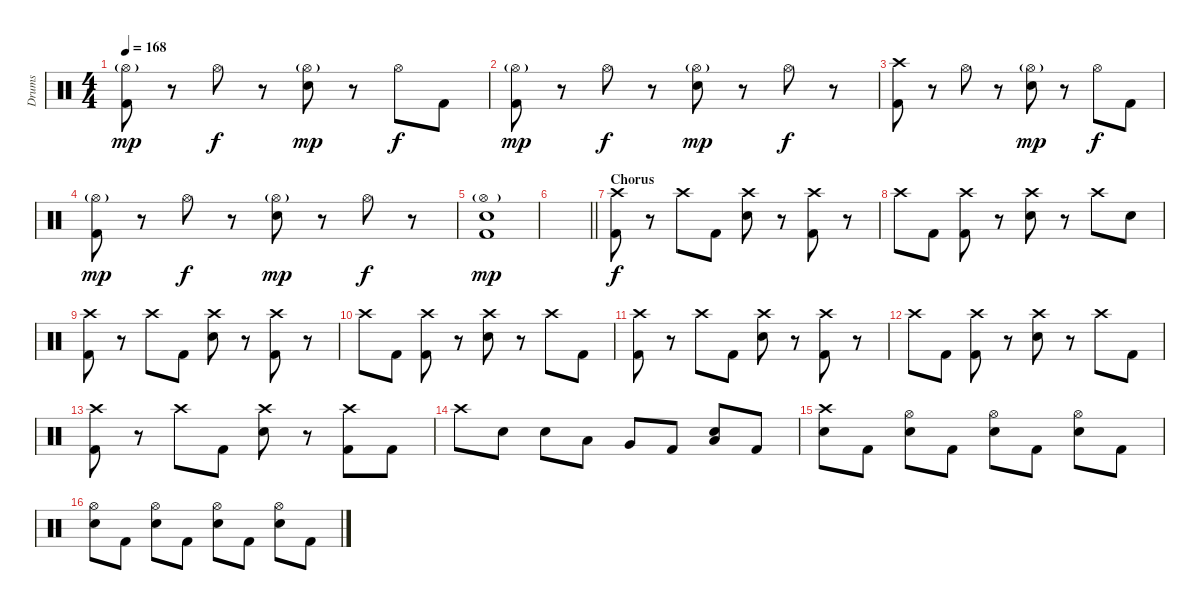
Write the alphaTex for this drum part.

\track ("Drums" "Drums") {instrument percussion}
\staff {score}
\articulation defaults
\ts (4 4)
\tempo 168
\clef neutral
\ks c
("Hi-Hat (open)"{g} "Kick (hit) 2").8{dy mp} r.8 "Hi-Hat (open)".8{dy f} r.8 ("Hi-Hat (open)"{g} "Snare (hit) 2").8{dy mp} r.8 "Hi-Hat (open)".8{dy f} "Kick (hit) 2".8 |
("Hi-Hat (open)"{g} "Kick (hit) 2").8{dy mp} r.8 "Hi-Hat (open)".8{dy f} r.8 ("Hi-Hat (open)"{g} "Snare (hit) 2").8{dy mp} r.8 "Hi-Hat (open)".8{dy f} r.8 |
("Crash high (hit)" "Kick (hit) 2").8 r.8 "Hi-Hat (open)".8 r.8 ("Hi-Hat (open)"{g} "Snare (hit) 2").8{dy mp} r.8 "Hi-Hat (open)".8{dy f} "Kick (hit) 2".8 |
("Hi-Hat (open)"{g} "Kick (hit) 2").8{dy mp} r.8 "Hi-Hat (open)".8{dy f} r.8 ("Hi-Hat (open)"{g} "Snare (hit) 2").8{dy mp} r.8 "Hi-Hat (open)".8{dy f} r.8 |
("Hi-Hat (open)"{g} "Snare (hit) 2" "Kick (hit) 2").1{dy mp} |
\barLineRight lightlight
|
\section ("" "Chorus")
("Crash high (hit)" "Kick (hit) 2").8{dy f} r.8 "Crash high (hit)".8 "Kick (hit) 2".8 ("Crash high (hit)" "Snare (hit) 2").8 r.8 ("Crash high (hit)" "Kick (hit) 2").8 r.8 |
"Crash high (hit)".8 "Kick (hit) 2".8 ("Crash high (hit)" "Kick (hit) 2").8 r.8 ("Crash high (hit)" "Snare (hit) 2").8 r.8 "Crash high (hit)".8 "Snare (hit) 2".8 |
("Crash high (hit)" "Kick (hit) 2").8 r.8 "Crash high (hit)".8 "Kick (hit) 2".8 ("Crash high (hit)" "Snare (hit) 2").8 r.8 ("Crash high (hit)" "Kick (hit) 2").8 r.8 |
"Crash high (hit)".8 "Kick (hit) 2".8 ("Crash high (hit)" "Kick (hit) 2").8 r.8 ("Crash high (hit)" "Snare (hit) 2").8 r.8 "Crash high (hit)".8 "Kick (hit) 2".8 |
("Crash high (hit)" "Kick (hit) 2").8 r.8 "Crash high (hit)".8 "Kick (hit) 2".8 ("Crash high (hit)" "Snare (hit) 2").8 r.8 ("Crash high (hit)" "Kick (hit) 2").8 r.8 |
"Crash high (hit)".8 "Kick (hit) 2".8 ("Crash high (hit)" "Kick (hit) 2").8 r.8 ("Crash high (hit)" "Snare (hit) 2").8 r.8 "Crash high (hit)".8 "Kick (hit) 2".8 |
("Crash high (hit)" "Kick (hit) 2").8 r.8 "Crash high (hit)".8 "Kick (hit) 2".8 ("Crash high (hit)" "Snare (hit) 2").8 r.8 ("Crash high (hit)" "Kick (hit) 2").8 "Kick (hit) 2".8 |
"Crash high (hit)".8 "Snare (hit) 2".8 "Snare (hit) 2".8 "Low Tom (hit)".8 "Very Low Tom (hit)".8 "Kick (hit) 2".8 ("Low Floor Tom (hit)" "Snare (hit) 2").8 "Kick (hit) 2".8 |
("Crash high (hit)" "Snare (hit) 2").8 "Kick (hit) 2".8 ("Hi-Hat (open)" "Snare (hit) 2").8 "Kick (hit) 2".8 ("Hi-Hat (open)" "Snare (hit) 2").8 "Kick (hit) 2".8 ("Hi-Hat (open)" "Snare (hit) 2").8 "Kick (hit) 2".8 |
("Hi-Hat (open)" "Snare (hit) 2").8 "Kick (hit) 2".8 ("Hi-Hat (open)" "Snare (hit) 2").8 "Kick (hit) 2".8 ("Hi-Hat (open)" "Snare (hit) 2").8 "Kick (hit) 2".8 ("Hi-Hat (open)" "Snare (hit) 2").8 "Kick (hit) 2".8
